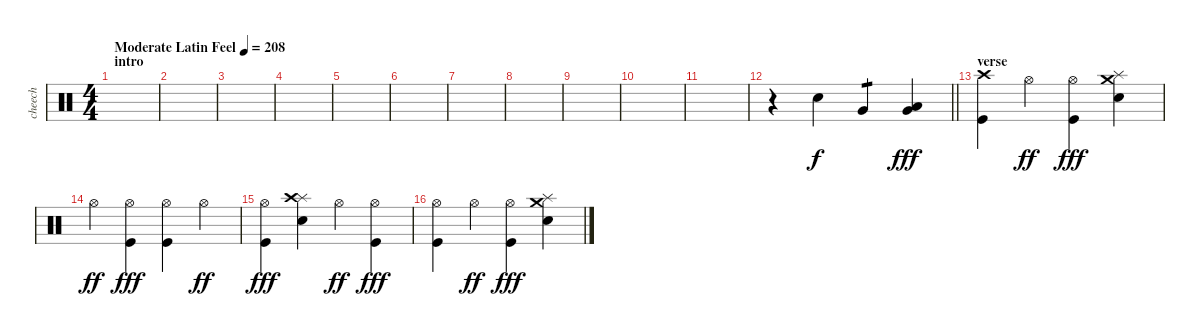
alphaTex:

\track ("cheech" "cheech") {instrument percussion}
\staff {score}
\articulation defaults
\ts (4 4)
\section ("" "intro")
\tempo (208 "Moderate Latin Feel")
\clef neutral
\ks c
|
|
|
|
|
|
|
|
|
|
|
\barLineRight lightlight
r.4 "Electric Snare (hit)".4 "Very Low Tom (hit)".4{tp 1} ("Very Low Tom (hit)" "Low Floor Tom (hit)").4{dy fff} |
\section ("" "verse ")
("Crash high (hit)" "Kick (hit)").4 "Hi-Hat (open)".4{dy ff} ("Hi-Hat (open)" "Kick (hit)").4{dy fff} ("Splash (hit)" "Crash medium (hit)" "Electric Snare (hit)").4 |
"Hi-Hat (open)".4{dy ff} ("Hi-Hat (open)" "Kick (hit)").4{dy fff} ("Hi-Hat (open)" "Kick (hit)").4 "Hi-Hat (open)".4{dy ff} |
("Hi-Hat (open)" "Kick (hit)").4{dy fff} ("Splash (hit)" "Crash high (hit)" "Electric Snare (hit)").4 "Hi-Hat (open)".4{dy ff} ("Hi-Hat (open)" "Kick (hit)").4{dy fff} |
("Hi-Hat (open)" "Kick (hit)").4 "Hi-Hat (open)".4{dy ff} ("Hi-Hat (open)" "Kick (hit)").4{dy fff} ("Splash (hit)" "Crash medium (hit)" "Electric Snare (hit)").4
